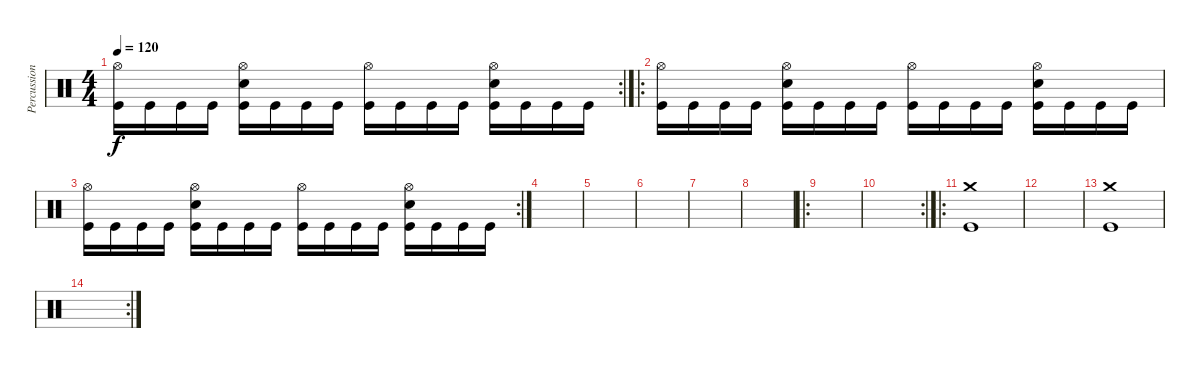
\track ("Percussion" "Percussion") {instrument percussion}
\staff {score}
\articulation defaults
\rc 2
\ts (4 4)
\tempo 120
\clef neutral
\ks c
("Hi-Hat (open)" "Kick (hit)").16{dy f} "Kick (hit)".16 "Kick (hit)".16 "Kick (hit)".16 ("Hi-Hat (open)" "Snare (hit) 2" "Kick (hit)").16 "Kick (hit)".16 "Kick (hit)".16 "Kick (hit)".16 ("Hi-Hat (open)" "Kick (hit)").16 "Kick (hit)".16 "Kick (hit)".16 "Kick (hit)".16 ("Hi-Hat (open)" "Snare (hit) 2" "Kick (hit)").16 "Kick (hit)".16 "Kick (hit)".16 "Kick (hit)".16 |
\ro
("Hi-Hat (open)" "Kick (hit)").16 "Kick (hit)".16 "Kick (hit)".16 "Kick (hit)".16 ("Hi-Hat (open)" "Snare (hit) 2" "Kick (hit)").16 "Kick (hit)".16 "Kick (hit)".16 "Kick (hit)".16 ("Hi-Hat (open)" "Kick (hit)").16 "Kick (hit)".16 "Kick (hit)".16 "Kick (hit)".16 ("Hi-Hat (open)" "Snare (hit) 2" "Kick (hit)").16 "Kick (hit)".16 "Kick (hit)".16 "Kick (hit)".16 |
\rc 2
("Hi-Hat (open)" "Kick (hit)").16 "Kick (hit)".16 "Kick (hit)".16 "Kick (hit)".16 ("Hi-Hat (open)" "Snare (hit) 2" "Kick (hit)").16 "Kick (hit)".16 "Kick (hit)".16 "Kick (hit)".16 ("Hi-Hat (open)" "Kick (hit)").16 "Kick (hit)".16 "Kick (hit)".16 "Kick (hit)".16 ("Hi-Hat (open)" "Snare (hit) 2" "Kick (hit)").16 "Kick (hit)".16 "Kick (hit)".16 "Kick (hit)".16 |
|
|
|
|
|
\ro
|
\rc 2
|
\ro
("Crash medium (hit)" "Kick (hit)").1 |
|
("Crash medium (hit)" "Kick (hit)").1 |
\rc 2
